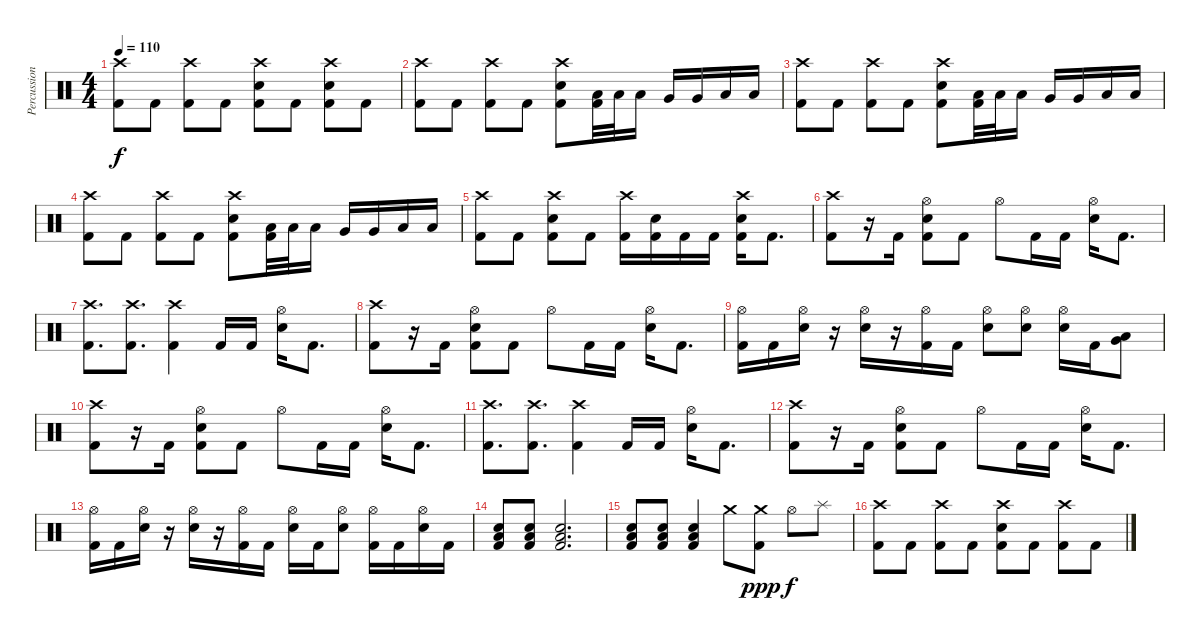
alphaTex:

\track ("Percussion" "Percussion") {instrument percussion}
\staff {score}
\articulation defaults
\ts (4 4)
\tempo 110
\clef neutral
\ks c
("Crash high (hit)" "Kick (hit) 2").8{dy f} "Kick (hit) 2".8 ("Crash high (hit)" "Kick (hit) 2").8 "Kick (hit) 2".8 ("Crash high (hit)" "Electric Snare (hit)" "Kick (hit) 2").8 "Kick (hit) 2".8 ("Crash high (hit)" "Electric Snare (hit)" "Kick (hit) 2").8 "Kick (hit) 2".8 |
("Crash high (hit)" "Kick (hit) 2").8 "Kick (hit) 2".8 ("Crash high (hit)" "Kick (hit) 2").8 "Kick (hit) 2".8 ("Crash high (hit)" "Electric Snare (hit)" "Kick (hit) 2").8 ("Low Tom (hit)" "Kick (hit) 2").32 "Low Tom (hit)".32 "Low Tom (hit)".16 "Very Low Tom (hit)".16 "Very Low Tom (hit)".16 "Low Floor Tom (hit)".16 "Low Floor Tom (hit)".16 |
("Crash high (hit)" "Kick (hit) 2").8 "Kick (hit) 2".8 ("Crash high (hit)" "Kick (hit) 2").8 "Kick (hit) 2".8 ("Crash high (hit)" "Electric Snare (hit)" "Kick (hit) 2").8 ("Low Tom (hit)" "Kick (hit) 2").32 "Low Tom (hit)".32 "Low Tom (hit)".16 "Very Low Tom (hit)".16 "Very Low Tom (hit)".16 "Low Floor Tom (hit)".16 "Low Floor Tom (hit)".16 |
("Crash high (hit)" "Kick (hit) 2").8 "Kick (hit) 2".8 ("Crash high (hit)" "Kick (hit) 2").8 "Kick (hit) 2".8 ("Crash high (hit)" "Electric Snare (hit)" "Kick (hit) 2").8 ("Low Tom (hit)" "Kick (hit) 2").32 "Low Tom (hit)".32 "Low Tom (hit)".16 "Very Low Tom (hit)".16 "Very Low Tom (hit)".16 "Low Floor Tom (hit)".16 "Low Floor Tom (hit)".16 |
("Crash high (hit)" "Kick (hit) 2").8 "Kick (hit) 2".8 ("Crash high (hit)" "Electric Snare (hit)" "Kick (hit) 2").8 "Kick (hit) 2".8 ("Crash high (hit)" "Kick (hit) 2").16 ("Electric Snare (hit)" "Kick (hit) 2").16 "Kick (hit) 2".16 "Kick (hit) 2".16 ("Crash high (hit)" "Electric Snare (hit)" "Kick (hit) 2").16 "Kick (hit) 2".8{d} |
("Crash high (hit)" "Kick (hit) 2").8 r.16 "Kick (hit) 2".16 ("Hi-Hat (open)" "Electric Snare (hit)" "Kick (hit) 2").8 "Kick (hit) 2".8 "Hi-Hat (open)".8 "Kick (hit) 2".16 "Kick (hit) 2".16 ("Hi-Hat (open)" "Electric Snare (hit)").16 "Kick (hit) 2".8{d} |
("Crash high (hit)" "Kick (hit) 2").8{d} ("Crash high (hit)" "Kick (hit) 2").8{d} ("Crash high (hit)" "Kick (hit) 2").4 "Kick (hit) 2".16 "Kick (hit) 2".16 ("Hi-Hat (open)" "Electric Snare (hit)").16 "Kick (hit) 2".8{d} |
("Crash high (hit)" "Kick (hit) 2").8 r.16 "Kick (hit) 2".16 ("Hi-Hat (open)" "Electric Snare (hit)" "Kick (hit) 2").8 "Kick (hit) 2".8 "Hi-Hat (open)".8 "Kick (hit) 2".16 "Kick (hit) 2".16 ("Hi-Hat (open)" "Electric Snare (hit)").16 "Kick (hit) 2".8{d} |
("Hi-Hat (open)" "Kick (hit) 2").16 "Kick (hit) 2".16 ("Hi-Hat (open)" "Electric Snare (hit)").16 r.16 ("Hi-Hat (open)" "Electric Snare (hit)").16 r.16 ("Hi-Hat (open)" "Kick (hit) 2").16 "Kick (hit) 2".16 ("Hi-Hat (open)" "Electric Snare (hit)").8 ("Hi-Hat (open)" "Electric Snare (hit)").8 ("Hi-Hat (open)" "Electric Snare (hit)").16 "Kick (hit) 2".16 ("Low Floor Tom (hit)" "Very Low Tom (hit)").8 |
("Crash high (hit)" "Kick (hit) 2").8 r.16 "Kick (hit) 2".16 ("Hi-Hat (open)" "Electric Snare (hit)" "Kick (hit) 2").8 "Kick (hit) 2".8 "Hi-Hat (open)".8 "Kick (hit) 2".16 "Kick (hit) 2".16 ("Hi-Hat (open)" "Electric Snare (hit)").16 "Kick (hit) 2".8{d} |
("Crash high (hit)" "Kick (hit) 2").8{d} ("Crash high (hit)" "Kick (hit) 2").8{d} ("Crash high (hit)" "Kick (hit) 2").4 "Kick (hit) 2".16 "Kick (hit) 2".16 ("Hi-Hat (open)" "Electric Snare (hit)").16 "Kick (hit) 2".8{d} |
("Crash high (hit)" "Kick (hit) 2").8 r.16 "Kick (hit) 2".16 ("Hi-Hat (open)" "Electric Snare (hit)" "Kick (hit) 2").8 "Kick (hit) 2".8 "Hi-Hat (open)".8 "Kick (hit) 2".16 "Kick (hit) 2".16 ("Hi-Hat (open)" "Electric Snare (hit)").16 "Kick (hit) 2".8{d} |
("Hi-Hat (open)" "Kick (hit) 2").16 "Kick (hit) 2".16 ("Hi-Hat (open)" "Electric Snare (hit)").16 r.16 ("Hi-Hat (open)" "Electric Snare (hit)").16 r.16 ("Hi-Hat (open)" "Kick (hit) 2").16 "Kick (hit) 2".16 ("Hi-Hat (open)" "Electric Snare (hit)").16 "Kick (hit) 2".16 ("Hi-Hat (open)" "Electric Snare (hit)").8 ("Hi-Hat (open)" "Kick (hit) 2").16 "Kick (hit) 2".16 ("Hi-Hat (open)" "Electric Snare (hit)").16 "Kick (hit) 2".16 |
("Low Floor Tom (hit)" "Electric Snare (hit)" "Kick (hit) 2").8 ("Low Floor Tom (hit)" "Electric Snare (hit)" "Kick (hit) 2").8 ("Low Floor Tom (hit)" "Electric Snare (hit)" "Kick (hit) 2").2{d} |
("Low Floor Tom (hit)" "Electric Snare (hit)" "Kick (hit) 2").8 ("Low Floor Tom (hit)" "Electric Snare (hit)" "Kick (hit) 2").8 ("Low Floor Tom (hit)" "Electric Snare (hit)" "Kick (hit) 2").4 "Crash medium (hit)".8 ("Crash medium (hit)" "Kick (hit) 2").8{dy ppp} "Hi-Hat (open)".8{dy f} "Splash (hit)".8 |
("Crash high (hit)" "Kick (hit) 2").8 "Kick (hit) 2".8 ("Crash high (hit)" "Kick (hit) 2").8 "Kick (hit) 2".8 ("Crash high (hit)" "Electric Snare (hit)" "Kick (hit) 2").8 "Kick (hit) 2".8 ("Crash high (hit)" "Kick (hit) 2").8 "Kick (hit) 2".8
